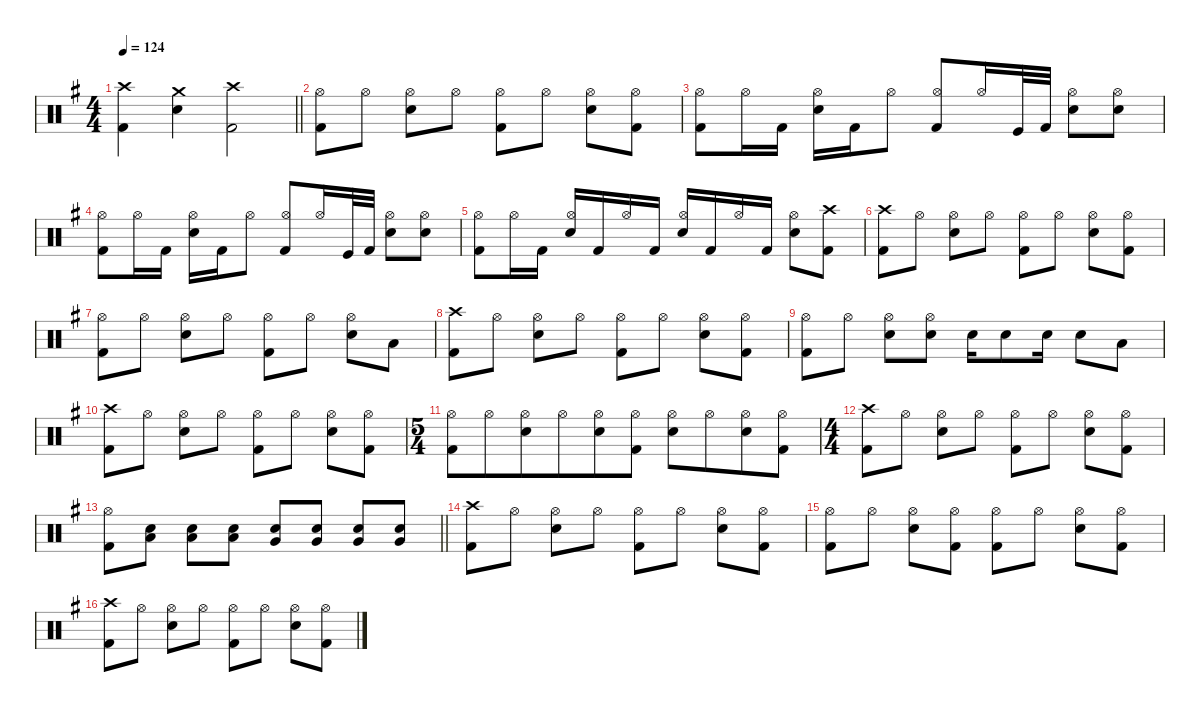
\defaultSystemsLayout 4
\hideDynamics
\bracketExtendMode nobrackets
\singleTrackTrackNamePolicy hidden
\multiTrackTrackNamePolicy hidden
\otherSystemsTrackNameOrientation horizontal
\track ("Drums" "drm.") {defaultSystemsLayout 4 instrument percussion}
\staff {score}
\articulation defaults
\ts (4 4)
\tempo 124
\clef neutral
\barLineRight lightlight
\ks eminor
("Crash high (hit)"{acc forcenatural} "Kick (hit) 2"{acc forcenatural}).4{dy mf beam Down} ("Crash medium (hit)"{acc forcenatural} "Snare (hit) 2"{acc forcenatural}).4{beam Down} ("Crash high (hit)"{acc forcenatural} "Kick (hit) 2"{acc forcenatural}).2{dy f beam Down} |
("Hi-Hat (open)"{acc forcenatural} "Kick (hit) 2"{acc forcenatural}).8{beam Down} "Hi-Hat (open)"{acc forcenatural}.8{dy mf beam Down} ("Hi-Hat (open)"{acc forcenatural} "Snare (hit) 2"{acc forcenatural}).8{beam Down} "Hi-Hat (open)"{acc forcenatural}.8{beam Down} ("Hi-Hat (open)"{acc forcenatural} "Kick (hit) 2"{acc forcenatural}).8{beam Down} "Hi-Hat (open)"{acc forcenatural}.8{beam Down} ("Hi-Hat (open)"{acc forcenatural} "Snare (hit) 2"{acc forcenatural}).8{beam Down} ("Hi-Hat (open)"{acc forcenatural} "Kick (hit) 2"{acc forcenatural}).8{beam Down} |
("Hi-Hat (open)"{acc forcenatural} "Kick (hit) 2"{acc forcenatural}).8{beam Down} "Hi-Hat (open)"{acc forcenatural}.16{beam Down} "Kick (hit) 2"{acc forcenatural}.16{dy ff beam Down} ("Hi-Hat (open)"{acc forcenatural} "Snare (hit) 2"{acc forcenatural}).16{dy mf beam Down} "Kick (hit) 2"{acc forcenatural}.16{dy ff beam Down} "Hi-Hat (open)"{acc forcenatural}.8{dy mf beam Down} ("Hi-Hat (open)"{acc forcenatural} "Kick (hit) 2"{acc forcenatural}).8{beam Up} "Hi-Hat (open)"{acc forcenatural}.16{beam Up} "Kick (hit)"{acc forcenatural}.32{dy ff beam Up} "Kick (hit) 2"{acc forcenatural}.32{beam Up} ("Hi-Hat (open)"{acc forcenatural} "Snare (hit) 2"{acc forcenatural}).8{dy mf beam Down} ("Hi-Hat (open)"{acc forcenatural} "Snare (hit) 2"{acc forcenatural}).8{beam Down} |
("Hi-Hat (open)"{acc forcenatural} "Kick (hit) 2"{acc forcenatural}).8{beam Down} "Hi-Hat (open)"{acc forcenatural}.16{beam Down} "Kick (hit) 2"{acc forcenatural}.16{dy ff beam Down} ("Hi-Hat (open)"{acc forcenatural} "Snare (hit) 2"{acc forcenatural}).16{dy mf beam Down} "Kick (hit) 2"{acc forcenatural}.16{dy ff beam Down} "Hi-Hat (open)"{acc forcenatural}.8{dy mf beam Down} ("Hi-Hat (open)"{acc forcenatural} "Kick (hit) 2"{acc forcenatural}).8{beam Up} "Hi-Hat (open)"{acc forcenatural}.16{beam Up} "Kick (hit)"{acc forcenatural}.32{dy ff beam Up} "Kick (hit) 2"{acc forcenatural}.32{beam Up} ("Hi-Hat (open)"{acc forcenatural} "Snare (hit) 2"{acc forcenatural}).8{dy mf beam Down} ("Hi-Hat (open)"{acc forcenatural} "Snare (hit) 2"{acc forcenatural}).8{beam Down} |
("Hi-Hat (open)"{acc forcenatural} "Kick (hit) 2"{acc forcenatural}).8{beam Down} "Hi-Hat (open)"{acc forcenatural}.16{beam Down} "Kick (hit) 2"{acc forcenatural}.16{dy ff beam Down} ("Hi-Hat (open)"{acc forcenatural} "Snare (hit) 2"{acc forcenatural}).16{dy mf beam Up} "Kick (hit) 2"{acc forcenatural}.16{dy ff beam Up} "Hi-Hat (open)"{acc forcenatural}.16{dy mf beam Up} "Kick (hit) 2"{acc forcenatural}.16{dy ff beam Up} ("Hi-Hat (open)"{acc forcenatural} "Snare (hit) 2"{acc forcenatural}).16{dy mf beam Up} "Kick (hit) 2"{acc forcenatural}.16{dy ff beam Up} "Hi-Hat (open)"{acc forcenatural}.16{dy mf beam Up} "Kick (hit) 2"{acc forcenatural}.16{dy ff beam Up} ("Hi-Hat (open)"{acc forcenatural} "Snare (hit) 2"{acc forcenatural}).8{dy mf beam Down} ("Crash high (hit)"{acc forcenatural} "Kick (hit) 2"{acc forcenatural}).8{dy f beam Down} |
("Crash high (hit)"{acc forcenatural} "Kick (hit) 2"{acc forcenatural}).8{beam Down} "Hi-Hat (open)"{acc forcenatural}.8{dy mf beam Down} ("Hi-Hat (open)"{acc forcenatural} "Snare (hit) 2"{acc forcenatural}).8{beam Down} "Hi-Hat (open)"{acc forcenatural}.8{beam Down} ("Hi-Hat (open)"{acc forcenatural} "Kick (hit) 2"{acc forcenatural}).8{beam Down} "Hi-Hat (open)"{acc forcenatural}.8{beam Down} ("Hi-Hat (open)"{acc forcenatural} "Snare (hit) 2"{acc forcenatural}).8{beam Down} ("Hi-Hat (open)"{acc forcenatural} "Kick (hit) 2"{acc forcenatural}).8{beam Down} |
("Hi-Hat (open)"{acc forcenatural} "Kick (hit) 2"{acc forcenatural}).8{beam Down} "Hi-Hat (open)"{acc forcenatural}.8{beam Down} ("Hi-Hat (open)"{acc forcenatural} "Snare (hit) 2"{acc forcenatural}).8{beam Down} "Hi-Hat (open)"{acc forcenatural}.8{beam Down} ("Hi-Hat (open)"{acc forcenatural} "Kick (hit) 2"{acc forcenatural}).8{beam Down} "Hi-Hat (open)"{acc forcenatural}.8{beam Down} ("Hi-Hat (open)"{acc forcenatural} "Snare (hit) 2"{acc forcenatural}).8{beam Down} "Low Tom (hit)"{acc forcenatural}.8{dy f beam Down} |
("Crash high (hit)"{acc forcenatural} "Kick (hit) 2"{acc forcenatural}).8{dy mf beam Down} "Hi-Hat (open)"{acc forcenatural}.8{beam Down} ("Hi-Hat (open)"{acc forcenatural} "Snare (hit) 2"{acc forcenatural}).8{beam Down} "Hi-Hat (open)"{acc forcenatural}.8{beam Down} ("Hi-Hat (open)"{acc forcenatural} "Kick (hit) 2"{acc forcenatural}).8{beam Down} "Hi-Hat (open)"{acc forcenatural}.8{beam Down} ("Hi-Hat (open)"{acc forcenatural} "Snare (hit) 2"{acc forcenatural}).8{beam Down} ("Hi-Hat (open)"{acc forcenatural} "Kick (hit) 2"{acc forcenatural}).8{beam Down} |
("Hi-Hat (open)"{acc forcenatural} "Kick (hit) 2"{acc forcenatural}).8{beam Down} "Hi-Hat (open)"{acc forcenatural}.8{beam Down} ("Hi-Hat (open)"{acc forcenatural} "Snare (hit) 2"{acc forcenatural}).8{beam Down} ("Hi-Hat (open)"{acc forcenatural} "Snare (hit) 2"{acc forcenatural}).8{beam Down} "Snare (hit) 2"{acc forcenatural}.16{beam Down} "Snare (hit) 2"{acc forcenatural}.8{dy ff beam Down} "Snare (hit) 2"{acc forcenatural}.16{dy f beam Down} "Snare (hit) 2"{acc forcenatural}.8{dy ff beam Down} "Low Tom (hit)"{acc forcenatural}.8{dy fff beam Down} |
("Crash high (hit)"{acc forcenatural} "Kick (hit) 2"{acc forcenatural}).8{dy f beam Down} "Hi-Hat (open)"{acc forcenatural}.8{dy mf beam Down} ("Hi-Hat (open)"{acc forcenatural} "Snare (hit) 2"{acc forcenatural}).8{beam Down} "Hi-Hat (open)"{acc forcenatural}.8{beam Down} ("Hi-Hat (open)"{acc forcenatural} "Kick (hit) 2"{acc forcenatural}).8{beam Down} "Hi-Hat (open)"{acc forcenatural}.8{beam Down} ("Hi-Hat (open)"{acc forcenatural} "Snare (hit) 2"{acc forcenatural}).8{beam Down} ("Hi-Hat (open)"{acc forcenatural} "Kick (hit) 2"{acc forcenatural}).8{beam Down} |
\ts (5 4)
\beaming (8 6 4)
("Hi-Hat (open)"{acc forcenatural} "Kick (hit) 2"{acc forcenatural}).8{beam Down} "Hi-Hat (open)"{acc forcenatural}.8{beam Down} ("Hi-Hat (open)"{acc forcenatural} "Snare (hit) 2"{acc forcenatural}).8{beam Down} "Hi-Hat (open)"{acc forcenatural}.8{beam Down} ("Hi-Hat (open)"{acc forcenatural} "Snare (hit) 2"{acc forcenatural}).8{beam Down} ("Hi-Hat (open)"{acc forcenatural} "Kick (hit) 2"{acc forcenatural}).8{dy f beam Down} ("Hi-Hat (open)"{acc forcenatural} "Snare (hit) 2"{acc forcenatural}).8{beam Down} "Hi-Hat (open)"{acc forcenatural}.8{beam Down} ("Hi-Hat (open)"{acc forcenatural} "Snare (hit) 2"{acc forcenatural}).8{beam Down} ("Hi-Hat (open)"{acc forcenatural} "Kick (hit) 2"{acc forcenatural}).8{dy ff beam Down} |
\ts (4 4)
\beaming (8 2 2 2 2)
("Crash high (hit)"{acc forcenatural} "Kick (hit) 2"{acc forcenatural}).8{dy mf beam Down} "Hi-Hat (open)"{acc forcenatural}.8{beam Down} ("Hi-Hat (open)"{acc forcenatural} "Snare (hit) 2"{acc forcenatural}).8{beam Down} "Hi-Hat (open)"{acc forcenatural}.8{beam Down} ("Hi-Hat (open)"{acc forcenatural} "Kick (hit) 2"{acc forcenatural}).8{beam Down} "Hi-Hat (open)"{acc forcenatural}.8{beam Down} ("Hi-Hat (open)"{acc forcenatural} "Snare (hit) 2"{acc forcenatural}).8{beam Down} ("Hi-Hat (open)"{acc forcenatural} "Kick (hit) 2"{acc forcenatural}).8{beam Down} |
\barLineRight lightlight
("Hi-Hat (open)"{acc forcenatural} "Kick (hit) 2"{acc forcenatural}).8{beam Down} ("Low Tom (hit)"{acc forcenatural} "Snare (hit) 2"{acc forcenatural}).8{dy ff beam Down} ("Low Tom (hit)"{acc forcenatural} "Snare (hit) 2"{acc forcenatural}).8{beam Down} ("Low Tom (hit)"{acc forcenatural} "Snare (hit) 2"{acc forcenatural}).8{dy f beam Down} ("Very Low Tom (hit)"{acc forcenatural} "Snare (hit) 2"{acc forcenatural}).8{dy ff beam Up} ("Very Low Tom (hit)"{acc forcenatural} "Snare (hit) 2"{acc forcenatural}).8{beam Up} ("Very Low Tom (hit)"{acc forcenatural} "Snare (hit) 2"{acc forcenatural}).8{beam Up} ("Very Low Tom (hit)"{acc forcenatural} "Snare (hit) 2"{acc forcenatural}).8{dy fff beam Up} |
("Crash high (hit)"{acc forcenatural} "Kick (hit) 2"{acc forcenatural}).8{dy mf beam Down} "Hi-Hat (open)"{acc forcenatural}.8{beam Down} ("Hi-Hat (open)"{acc forcenatural} "Snare (hit) 2"{acc forcenatural}).8{beam Down} "Hi-Hat (open)"{acc forcenatural}.8{beam Down} ("Hi-Hat (open)"{acc forcenatural} "Kick (hit) 2"{acc forcenatural}).8{beam Down} "Hi-Hat (open)"{acc forcenatural}.8{beam Down} ("Hi-Hat (open)"{acc forcenatural} "Snare (hit) 2"{acc forcenatural}).8{beam Down} ("Hi-Hat (open)"{acc forcenatural} "Kick (hit) 2"{acc forcenatural}).8{beam Down} |
("Hi-Hat (open)"{acc forcenatural} "Kick (hit) 2"{acc forcenatural}).8{beam Down} "Hi-Hat (open)"{acc forcenatural}.8{beam Down} ("Hi-Hat (open)"{acc forcenatural} "Snare (hit) 2"{acc forcenatural}).8{beam Down} ("Hi-Hat (open)"{acc forcenatural} "Kick (hit) 2"{acc forcenatural}).8{beam Down} ("Hi-Hat (open)"{acc forcenatural} "Kick (hit) 2"{acc forcenatural}).8{beam Down} "Hi-Hat (open)"{acc forcenatural}.8{beam Down} ("Hi-Hat (open)"{acc forcenatural} "Snare (hit) 2"{acc forcenatural}).8{beam Down} ("Hi-Hat (open)"{acc forcenatural} "Kick (hit) 2"{acc forcenatural}).8{beam Down} |
("Crash high (hit)"{acc forcenatural} "Kick (hit) 2"{acc forcenatural}).8{beam Down} "Hi-Hat (open)"{acc forcenatural}.8{beam Down} ("Hi-Hat (open)"{acc forcenatural} "Snare (hit) 2"{acc forcenatural}).8{beam Down} "Hi-Hat (open)"{acc forcenatural}.8{beam Down} ("Hi-Hat (open)"{acc forcenatural} "Kick (hit) 2"{acc forcenatural}).8{beam Down} "Hi-Hat (open)"{acc forcenatural}.8{beam Down} ("Hi-Hat (open)"{acc forcenatural} "Snare (hit) 2"{acc forcenatural}).8{beam Down} ("Hi-Hat (open)"{acc forcenatural} "Kick (hit) 2"{acc forcenatural}).8{beam Down}
